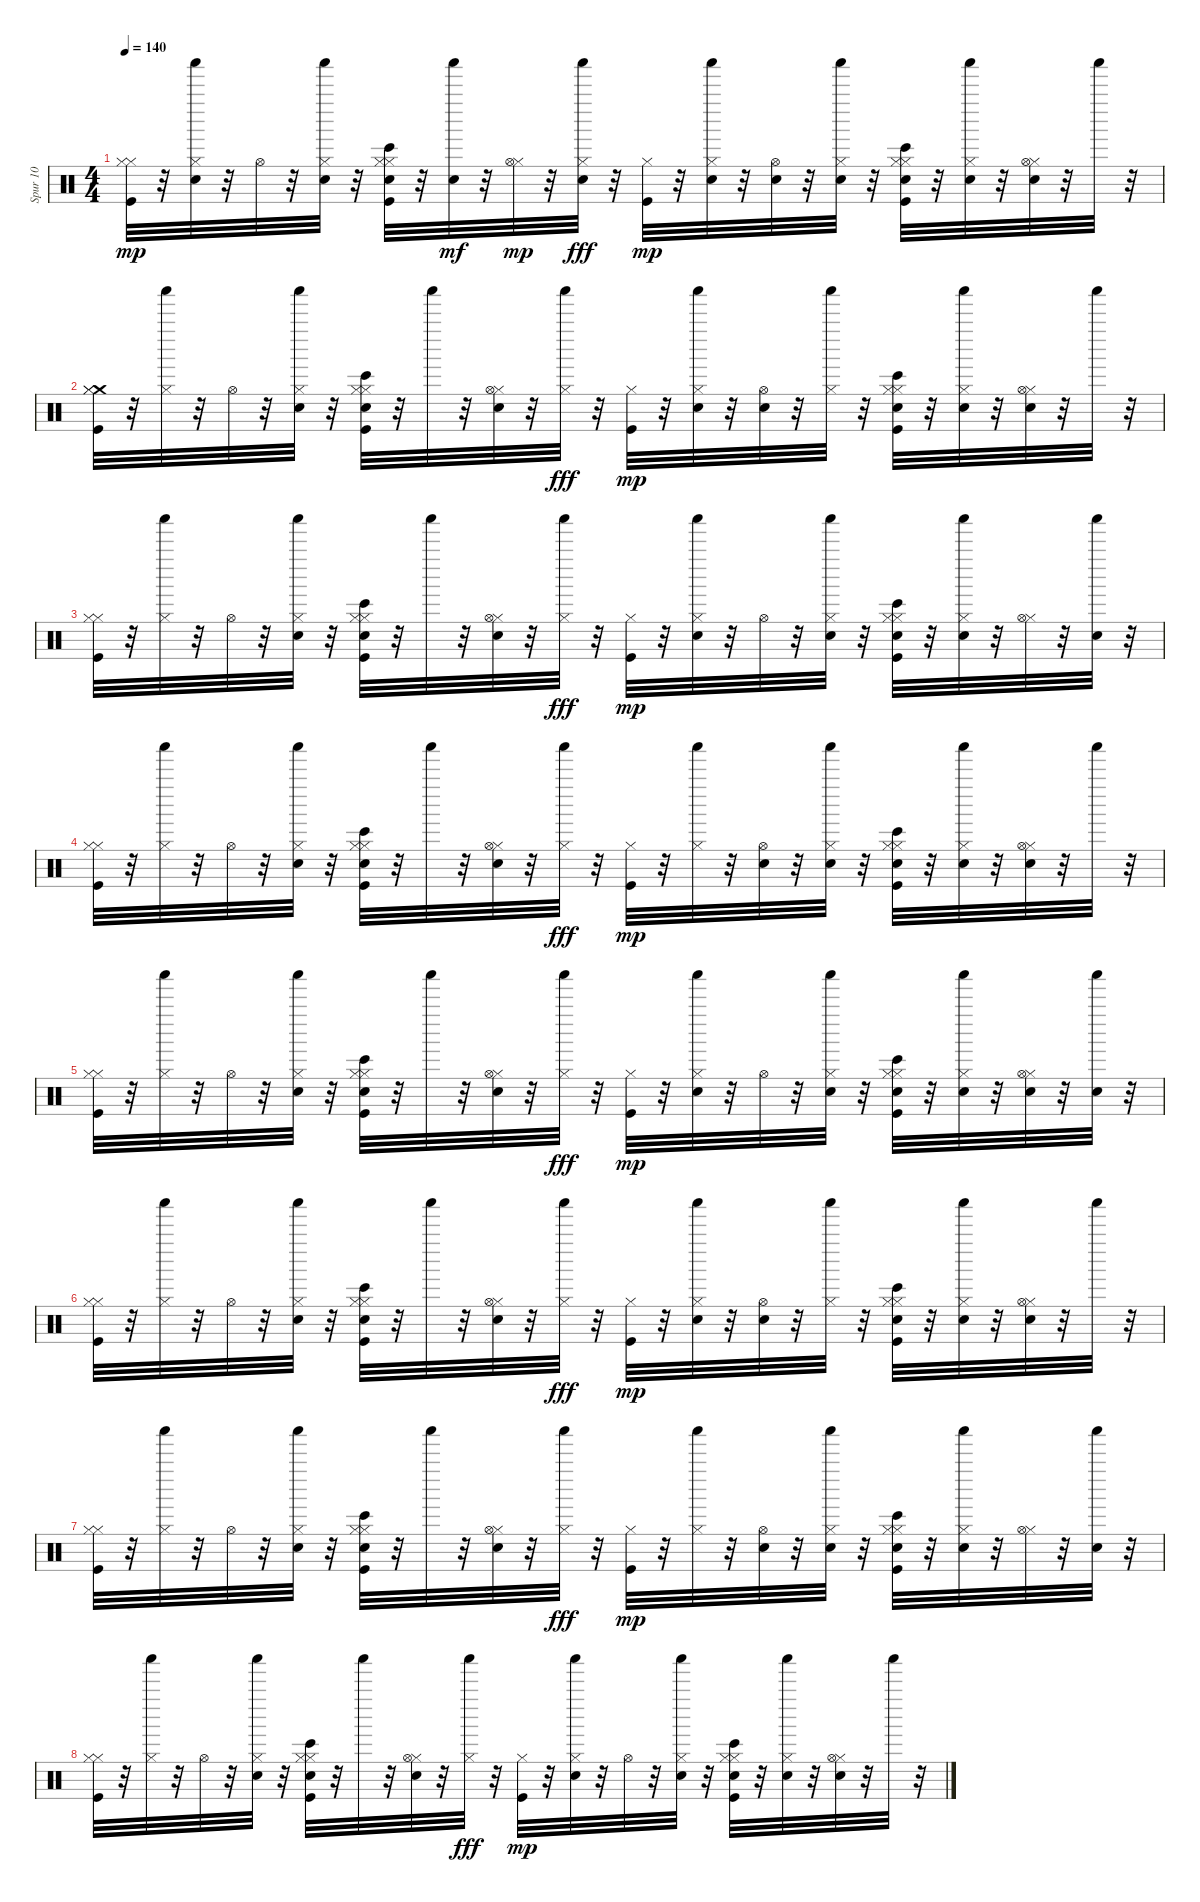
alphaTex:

\track ("Spur 10" "Spur 10") {instrument percussion}
\staff {score}
\articulation defaults
\ts (4 4)
\tempo 140
\clef neutral
\ks c
("Hi-Hat (closed)" "Kick (hit)" "Hi-Hat (closed)").32{dy mp} r.32 ("Snare (hit) 2" "Hi-Hat (closed)" "Shaker (hit)").32 r.32 "Hi-Hat (open)".32 r.32 ("Shaker (hit)" "Snare (hit) 2" "Hi-Hat (closed)").32 r.32 ("Electric Snare (hit)" "Hi-Hat (closed)" "Kick (hit)" "Bongo High (hit)" "Hi-Hat (closed)").32 r.32 ("Shaker (hit)" "Snare (hit) 2").32{dy mf} r.32 ("Hi-Hat (closed)" "Hi-Hat (open)").32{dy mp} r.32 ("Snare (hit) 2" "Shaker (hit)" "Hi-Hat (closed)").32{dy fff} r.32 ("Kick (hit)" "Hi-Hat (closed)").32{dy mp} r.32 ("Snare (hit) 2" "Hi-Hat (closed)" "Shaker (hit)").32 r.32 ("Snare (hit) 2" "Hi-Hat (open)").32 r.32 ("Snare (hit) 2" "Shaker (hit)" "Hi-Hat (closed)").32 r.32 ("Hi-Hat (closed)" "Kick (hit)" "Bongo High (hit)" "Electric Snare (hit)" "Hi-Hat (closed)").32 r.32 ("Snare (hit) 2" "Hi-Hat (closed)" "Shaker (hit)").32 r.32 ("Snare (hit) 2" "Hi-Hat (closed)" "Hi-Hat (open)").32 r.32 "Shaker (hit)".32 r.32 |
("Crash medium (hit)" "Hi-Hat (closed)" "Kick (hit)" "Hi-Hat (closed)").32 r.32 ("Hi-Hat (closed)" "Shaker (hit)").32 r.32 "Hi-Hat (open)".32 r.32 ("Shaker (hit)" "Snare (hit) 2" "Hi-Hat (closed)").32 r.32 ("Electric Snare (hit)" "Hi-Hat (closed)" "Kick (hit)" "Bongo High (hit)" "Hi-Hat (closed)").32 r.32 "Shaker (hit)".32 r.32 ("Snare (hit) 2" "Hi-Hat (closed)" "Hi-Hat (open)").32 r.32 ("Shaker (hit)" "Hi-Hat (closed)").32{dy fff} r.32 ("Kick (hit)" "Hi-Hat (closed)").32{dy mp} r.32 ("Snare (hit) 2" "Hi-Hat (closed)" "Shaker (hit)").32 r.32 ("Snare (hit) 2" "Hi-Hat (open)").32 r.32 ("Shaker (hit)" "Hi-Hat (closed)").32 r.32 ("Hi-Hat (closed)" "Kick (hit)" "Bongo High (hit)" "Electric Snare (hit)" "Hi-Hat (closed)").32 r.32 ("Snare (hit) 2" "Hi-Hat (closed)" "Shaker (hit)").32 r.32 ("Snare (hit) 2" "Hi-Hat (closed)" "Hi-Hat (open)").32 r.32 "Shaker (hit)".32 r.32 |
("Hi-Hat (closed)" "Kick (hit)" "Hi-Hat (closed)").32 r.32 ("Hi-Hat (closed)" "Shaker (hit)").32 r.32 "Hi-Hat (open)".32 r.32 ("Shaker (hit)" "Snare (hit) 2" "Hi-Hat (closed)").32 r.32 ("Hi-Hat (closed)" "Kick (hit)" "Bongo High (hit)" "Electric Snare (hit)" "Hi-Hat (closed)").32 r.32 "Shaker (hit)".32 r.32 ("Snare (hit) 2" "Hi-Hat (closed)" "Hi-Hat (open)").32 r.32 ("Shaker (hit)" "Hi-Hat (closed)").32{dy fff} r.32 ("Kick (hit)" "Hi-Hat (closed)").32{dy mp} r.32 ("Snare (hit) 2" "Hi-Hat (closed)" "Shaker (hit)").32 r.32 "Hi-Hat (open)".32 r.32 ("Snare (hit) 2" "Shaker (hit)" "Hi-Hat (closed)").32 r.32 ("Hi-Hat (closed)" "Kick (hit)" "Bongo High (hit)" "Electric Snare (hit)" "Hi-Hat (closed)").32 r.32 ("Snare (hit) 2" "Hi-Hat (closed)" "Shaker (hit)").32 r.32 ("Hi-Hat (closed)" "Hi-Hat (open)").32 r.32 ("Snare (hit) 2" "Shaker (hit)").32 r.32 |
("Hi-Hat (closed)" "Kick (hit)" "Hi-Hat (closed)").32 r.32 ("Hi-Hat (closed)" "Shaker (hit)").32 r.32 "Hi-Hat (open)".32 r.32 ("Shaker (hit)" "Snare (hit) 2" "Hi-Hat (closed)").32 r.32 ("Hi-Hat (closed)" "Kick (hit)" "Bongo High (hit)" "Electric Snare (hit)" "Hi-Hat (closed)").32 r.32 "Shaker (hit)".32 r.32 ("Snare (hit) 2" "Hi-Hat (closed)" "Hi-Hat (open)").32 r.32 ("Shaker (hit)" "Hi-Hat (closed)").32{dy fff} r.32 ("Kick (hit)" "Hi-Hat (closed)").32{dy mp} r.32 ("Hi-Hat (closed)" "Shaker (hit)").32 r.32 ("Snare (hit) 2" "Hi-Hat (open)").32 r.32 ("Snare (hit) 2" "Shaker (hit)" "Hi-Hat (closed)").32 r.32 ("Hi-Hat (closed)" "Kick (hit)" "Bongo High (hit)" "Electric Snare (hit)" "Hi-Hat (closed)").32 r.32 ("Snare (hit) 2" "Hi-Hat (closed)" "Shaker (hit)").32 r.32 ("Snare (hit) 2" "Hi-Hat (closed)" "Hi-Hat (open)").32 r.32 "Shaker (hit)".32 r.32 |
("Hi-Hat (closed)" "Kick (hit)" "Hi-Hat (closed)").32 r.32 ("Hi-Hat (closed)" "Shaker (hit)").32 r.32 "Hi-Hat (open)".32 r.32 ("Shaker (hit)" "Snare (hit) 2" "Hi-Hat (closed)").32 r.32 ("Hi-Hat (closed)" "Kick (hit)" "Bongo High (hit)" "Electric Snare (hit)" "Hi-Hat (closed)").32 r.32 "Shaker (hit)".32 r.32 ("Snare (hit) 2" "Hi-Hat (closed)" "Hi-Hat (open)").32 r.32 ("Shaker (hit)" "Hi-Hat (closed)").32{dy fff} r.32 ("Kick (hit)" "Hi-Hat (closed)").32{dy mp} r.32 ("Snare (hit) 2" "Hi-Hat (closed)" "Shaker (hit)").32 r.32 "Hi-Hat (open)".32 r.32 ("Snare (hit) 2" "Shaker (hit)" "Hi-Hat (closed)").32 r.32 ("Hi-Hat (closed)" "Kick (hit)" "Bongo High (hit)" "Electric Snare (hit)" "Hi-Hat (closed)").32 r.32 ("Snare (hit) 2" "Hi-Hat (closed)" "Shaker (hit)").32 r.32 ("Snare (hit) 2" "Hi-Hat (closed)" "Hi-Hat (open)").32 r.32 ("Snare (hit) 2" "Shaker (hit)").32 r.32 |
("Hi-Hat (closed)" "Kick (hit)" "Hi-Hat (closed)").32 r.32 ("Hi-Hat (closed)" "Shaker (hit)").32 r.32 "Hi-Hat (open)".32 r.32 ("Shaker (hit)" "Snare (hit) 2" "Hi-Hat (closed)").32 r.32 ("Hi-Hat (closed)" "Kick (hit)" "Bongo High (hit)" "Electric Snare (hit)" "Hi-Hat (closed)").32 r.32 "Shaker (hit)".32 r.32 ("Snare (hit) 2" "Hi-Hat (closed)" "Hi-Hat (open)").32 r.32 ("Shaker (hit)" "Hi-Hat (closed)").32{dy fff} r.32 ("Kick (hit)" "Hi-Hat (closed)").32{dy mp} r.32 ("Snare (hit) 2" "Hi-Hat (closed)" "Shaker (hit)").32 r.32 ("Snare (hit) 2" "Hi-Hat (open)").32 r.32 ("Shaker (hit)" "Hi-Hat (closed)").32 r.32 ("Hi-Hat (closed)" "Kick (hit)" "Bongo High (hit)" "Electric Snare (hit)" "Hi-Hat (closed)").32 r.32 ("Snare (hit) 2" "Hi-Hat (closed)" "Shaker (hit)").32 r.32 ("Snare (hit) 2" "Hi-Hat (closed)" "Hi-Hat (open)").32 r.32 "Shaker (hit)".32 r.32 |
("Hi-Hat (closed)" "Kick (hit)" "Hi-Hat (closed)").32 r.32 ("Hi-Hat (closed)" "Shaker (hit)").32 r.32 "Hi-Hat (open)".32 r.32 ("Shaker (hit)" "Snare (hit) 2" "Hi-Hat (closed)").32 r.32 ("Hi-Hat (closed)" "Kick (hit)" "Bongo High (hit)" "Electric Snare (hit)" "Hi-Hat (closed)").32 r.32 "Shaker (hit)".32 r.32 ("Snare (hit) 2" "Hi-Hat (closed)" "Hi-Hat (open)").32 r.32 ("Shaker (hit)" "Hi-Hat (closed)").32{dy fff} r.32 ("Kick (hit)" "Hi-Hat (closed)").32{dy mp} r.32 ("Hi-Hat (closed)" "Shaker (hit)").32 r.32 ("Snare (hit) 2" "Hi-Hat (open)").32 r.32 ("Snare (hit) 2" "Shaker (hit)" "Hi-Hat (closed)").32 r.32 ("Hi-Hat (closed)" "Kick (hit)" "Bongo High (hit)" "Electric Snare (hit)" "Hi-Hat (closed)").32 r.32 ("Snare (hit) 2" "Hi-Hat (closed)" "Shaker (hit)").32 r.32 ("Hi-Hat (closed)" "Hi-Hat (open)").32 r.32 ("Snare (hit) 2" "Shaker (hit)").32 r.32 |
("Hi-Hat (closed)" "Kick (hit)" "Hi-Hat (closed)").32 r.32 ("Hi-Hat (closed)" "Shaker (hit)").32 r.32 "Hi-Hat (open)".32 r.32 ("Shaker (hit)" "Snare (hit) 2" "Hi-Hat (closed)").32 r.32 ("Hi-Hat (closed)" "Kick (hit)" "Bongo High (hit)" "Electric Snare (hit)" "Hi-Hat (closed)").32 r.32 "Shaker (hit)".32 r.32 ("Snare (hit) 2" "Hi-Hat (closed)" "Hi-Hat (open)").32 r.32 ("Shaker (hit)" "Hi-Hat (closed)").32{dy fff} r.32 ("Kick (hit)" "Hi-Hat (closed)").32{dy mp} r.32 ("Snare (hit) 2" "Hi-Hat (closed)" "Shaker (hit)").32 r.32 "Hi-Hat (open)".32 r.32 ("Snare (hit) 2" "Shaker (hit)" "Hi-Hat (closed)").32 r.32 ("Hi-Hat (closed)" "Kick (hit)" "Bongo High (hit)" "Electric Snare (hit)" "Hi-Hat (closed)").32 r.32 ("Snare (hit) 2" "Hi-Hat (closed)" "Shaker (hit)").32 r.32 ("Snare (hit) 2" "Hi-Hat (closed)" "Hi-Hat (open)").32 r.32 "Shaker (hit)".32 r.32
